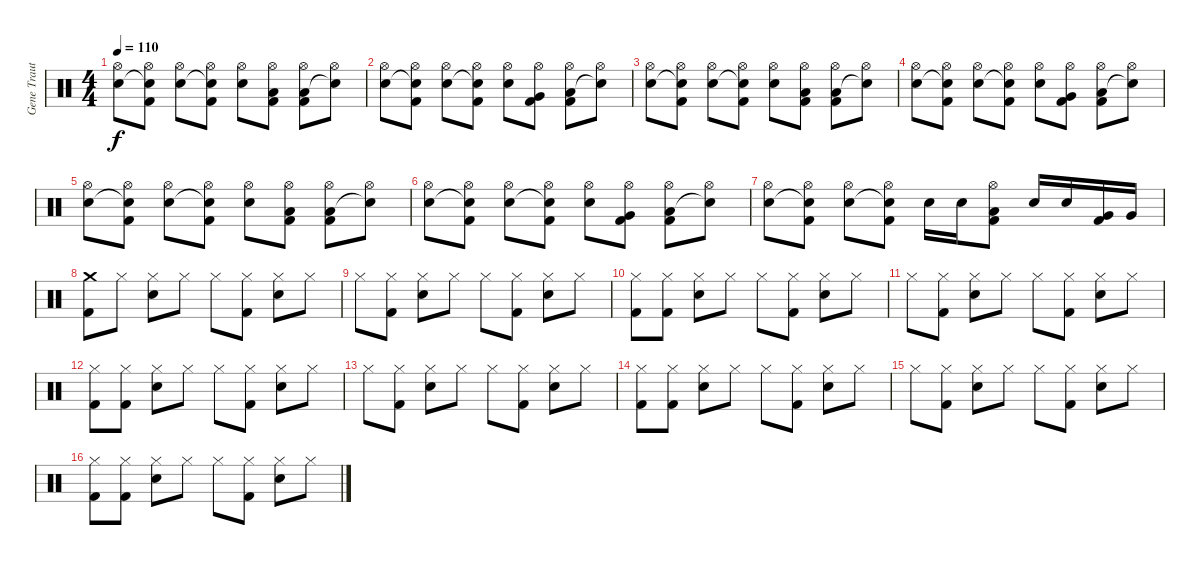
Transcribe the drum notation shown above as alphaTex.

\track ("Gene Trautmann (Drums)" "Gene Traut") {instrument percussion}
\staff {score}
\articulation defaults
\ts (4 4)
\tempo 110
\clef neutral
\ks c
("Hi-Hat (open)" "Electric Snare (hit)").8{dy f} ("Hi-Hat (open)" "Snare (hit)"{t} "Kick (hit) 2").8 ("Hi-Hat (open)" "Electric Snare (hit)").8 ("Hi-Hat (open)" "Snare (hit)"{t} "Kick (hit) 2").8 ("Hi-Hat (open)" "Electric Snare (hit)").8 ("Hi-Hat (open)" "Low Tom (hit)" "Kick (hit) 2").8 ("Hi-Hat (open)" "Low Floor Tom (hit)" "Kick (hit) 2").8 ("Hi-Hat (open)" "Snare (hit)"{t}).8 |
("Hi-Hat (open)" "Electric Snare (hit)").8 ("Hi-Hat (open)" "Snare (hit)"{t} "Kick (hit) 2").8 ("Hi-Hat (open)" "Electric Snare (hit)").8 ("Hi-Hat (open)" "Snare (hit)"{t} "Kick (hit) 2").8 ("Hi-Hat (open)" "Electric Snare (hit)").8 ("Hi-Hat (open)" "Very Low Tom (hit)" "Kick (hit) 2").8 ("Hi-Hat (open)" "Low Floor Tom (hit)" "Kick (hit) 2").8 ("Hi-Hat (open)" "Snare (hit)"{t}).8 |
("Hi-Hat (open)" "Electric Snare (hit)").8 ("Hi-Hat (open)" "Snare (hit)"{t} "Kick (hit) 2").8 ("Hi-Hat (open)" "Electric Snare (hit)").8 ("Hi-Hat (open)" "Snare (hit)"{t} "Kick (hit) 2").8 ("Hi-Hat (open)" "Electric Snare (hit)").8 ("Hi-Hat (open)" "Low Tom (hit)" "Kick (hit) 2").8 ("Hi-Hat (open)" "Low Floor Tom (hit)" "Kick (hit) 2").8 ("Hi-Hat (open)" "Snare (hit)"{t}).8 |
("Hi-Hat (open)" "Electric Snare (hit)").8 ("Hi-Hat (open)" "Snare (hit)"{t} "Kick (hit) 2").8 ("Hi-Hat (open)" "Electric Snare (hit)").8 ("Hi-Hat (open)" "Snare (hit)"{t} "Kick (hit) 2").8 ("Hi-Hat (open)" "Electric Snare (hit)").8 ("Hi-Hat (open)" "Very Low Tom (hit)" "Kick (hit) 2").8 ("Hi-Hat (open)" "Low Floor Tom (hit)" "Kick (hit) 2").8 ("Hi-Hat (open)" "Snare (hit)"{t}).8 |
("Hi-Hat (open)" "Electric Snare (hit)").8 ("Hi-Hat (open)" "Snare (hit)"{t} "Kick (hit) 2").8 ("Hi-Hat (open)" "Electric Snare (hit)").8 ("Hi-Hat (open)" "Snare (hit)"{t} "Kick (hit) 2").8 ("Hi-Hat (open)" "Electric Snare (hit)").8 ("Hi-Hat (open)" "Low Tom (hit)" "Kick (hit) 2").8 ("Hi-Hat (open)" "Low Floor Tom (hit)" "Kick (hit) 2").8 ("Hi-Hat (open)" "Snare (hit)"{t}).8 |
("Hi-Hat (open)" "Electric Snare (hit)").8 ("Hi-Hat (open)" "Snare (hit)"{t} "Kick (hit) 2").8 ("Hi-Hat (open)" "Electric Snare (hit)").8 ("Hi-Hat (open)" "Snare (hit)"{t} "Kick (hit) 2").8 ("Hi-Hat (open)" "Electric Snare (hit)").8 ("Hi-Hat (open)" "Very Low Tom (hit)" "Kick (hit) 2").8 ("Hi-Hat (open)" "Low Floor Tom (hit)" "Kick (hit) 2").8 ("Hi-Hat (open)" "Snare (hit)"{t}).8 |
("Hi-Hat (open)" "Electric Snare (hit)").8 ("Hi-Hat (open)" "Snare (hit)"{t} "Kick (hit) 2").8 ("Hi-Hat (open)" "Electric Snare (hit)").8 ("Hi-Hat (open)" "Snare (hit)"{t} "Kick (hit) 2").8 "Electric Snare (hit)".16 "Electric Snare (hit)".16 ("Hi-Hat (open)" "Low Tom (hit)" "Kick (hit) 2").8 "Electric Snare (hit)".16 "Electric Snare (hit)".16 ("Very Low Tom (hit)" "Kick (hit) 2").16 "Very Low Tom (hit)".16 |
("Crash medium (hit)" "Kick (hit) 2").8 "Hi-Hat (closed)".8 ("Hi-Hat (closed)" "Electric Snare (hit)").8 "Hi-Hat (closed)".8 "Hi-Hat (closed)".8 ("Hi-Hat (closed)" "Kick (hit) 2").8 ("Hi-Hat (closed)" "Electric Snare (hit)").8 "Hi-Hat (closed)".8 |
"Hi-Hat (closed)".8 ("Hi-Hat (closed)" "Kick (hit) 2").8 ("Hi-Hat (closed)" "Electric Snare (hit)").8 "Hi-Hat (closed)".8 "Hi-Hat (closed)".8 ("Hi-Hat (closed)" "Kick (hit) 2").8 ("Hi-Hat (closed)" "Electric Snare (hit)").8 "Hi-Hat (closed)".8 |
("Hi-Hat (closed)" "Kick (hit) 2").8 ("Hi-Hat (closed)" "Kick (hit) 2").8 ("Hi-Hat (closed)" "Electric Snare (hit)").8 "Hi-Hat (closed)".8 "Hi-Hat (closed)".8 ("Hi-Hat (closed)" "Kick (hit) 2").8 ("Hi-Hat (closed)" "Electric Snare (hit)").8 "Hi-Hat (closed)".8 |
"Hi-Hat (closed)".8 ("Hi-Hat (closed)" "Kick (hit) 2").8 ("Hi-Hat (closed)" "Electric Snare (hit)").8 "Hi-Hat (closed)".8 "Hi-Hat (closed)".8 ("Hi-Hat (closed)" "Kick (hit) 2").8 ("Hi-Hat (closed)" "Electric Snare (hit)").8 "Hi-Hat (closed)".8 |
("Hi-Hat (closed)" "Kick (hit) 2").8 ("Hi-Hat (closed)" "Kick (hit) 2").8 ("Hi-Hat (closed)" "Electric Snare (hit)").8 "Hi-Hat (closed)".8 "Hi-Hat (closed)".8 ("Hi-Hat (closed)" "Kick (hit) 2").8 ("Hi-Hat (closed)" "Electric Snare (hit)").8 "Hi-Hat (closed)".8 |
"Hi-Hat (closed)".8 ("Hi-Hat (closed)" "Kick (hit) 2").8 ("Hi-Hat (closed)" "Electric Snare (hit)").8 "Hi-Hat (closed)".8 "Hi-Hat (closed)".8 ("Hi-Hat (closed)" "Kick (hit) 2").8 ("Hi-Hat (closed)" "Electric Snare (hit)").8 "Hi-Hat (closed)".8 |
("Hi-Hat (closed)" "Kick (hit) 2").8 ("Hi-Hat (closed)" "Kick (hit) 2").8 ("Hi-Hat (closed)" "Electric Snare (hit)").8 "Hi-Hat (closed)".8 "Hi-Hat (closed)".8 ("Hi-Hat (closed)" "Kick (hit) 2").8 ("Hi-Hat (closed)" "Electric Snare (hit)").8 "Hi-Hat (closed)".8 |
"Hi-Hat (closed)".8 ("Hi-Hat (closed)" "Kick (hit) 2").8 ("Hi-Hat (closed)" "Electric Snare (hit)").8 "Hi-Hat (closed)".8 "Hi-Hat (closed)".8 ("Hi-Hat (closed)" "Kick (hit) 2").8 ("Hi-Hat (closed)" "Electric Snare (hit)").8 "Hi-Hat (closed)".8 |
("Hi-Hat (closed)" "Kick (hit) 2").8 ("Hi-Hat (closed)" "Kick (hit) 2").8 ("Hi-Hat (closed)" "Electric Snare (hit)").8 "Hi-Hat (closed)".8 "Hi-Hat (closed)".8 ("Hi-Hat (closed)" "Kick (hit) 2").8 ("Hi-Hat (closed)" "Electric Snare (hit)").8 "Hi-Hat (closed)".8
